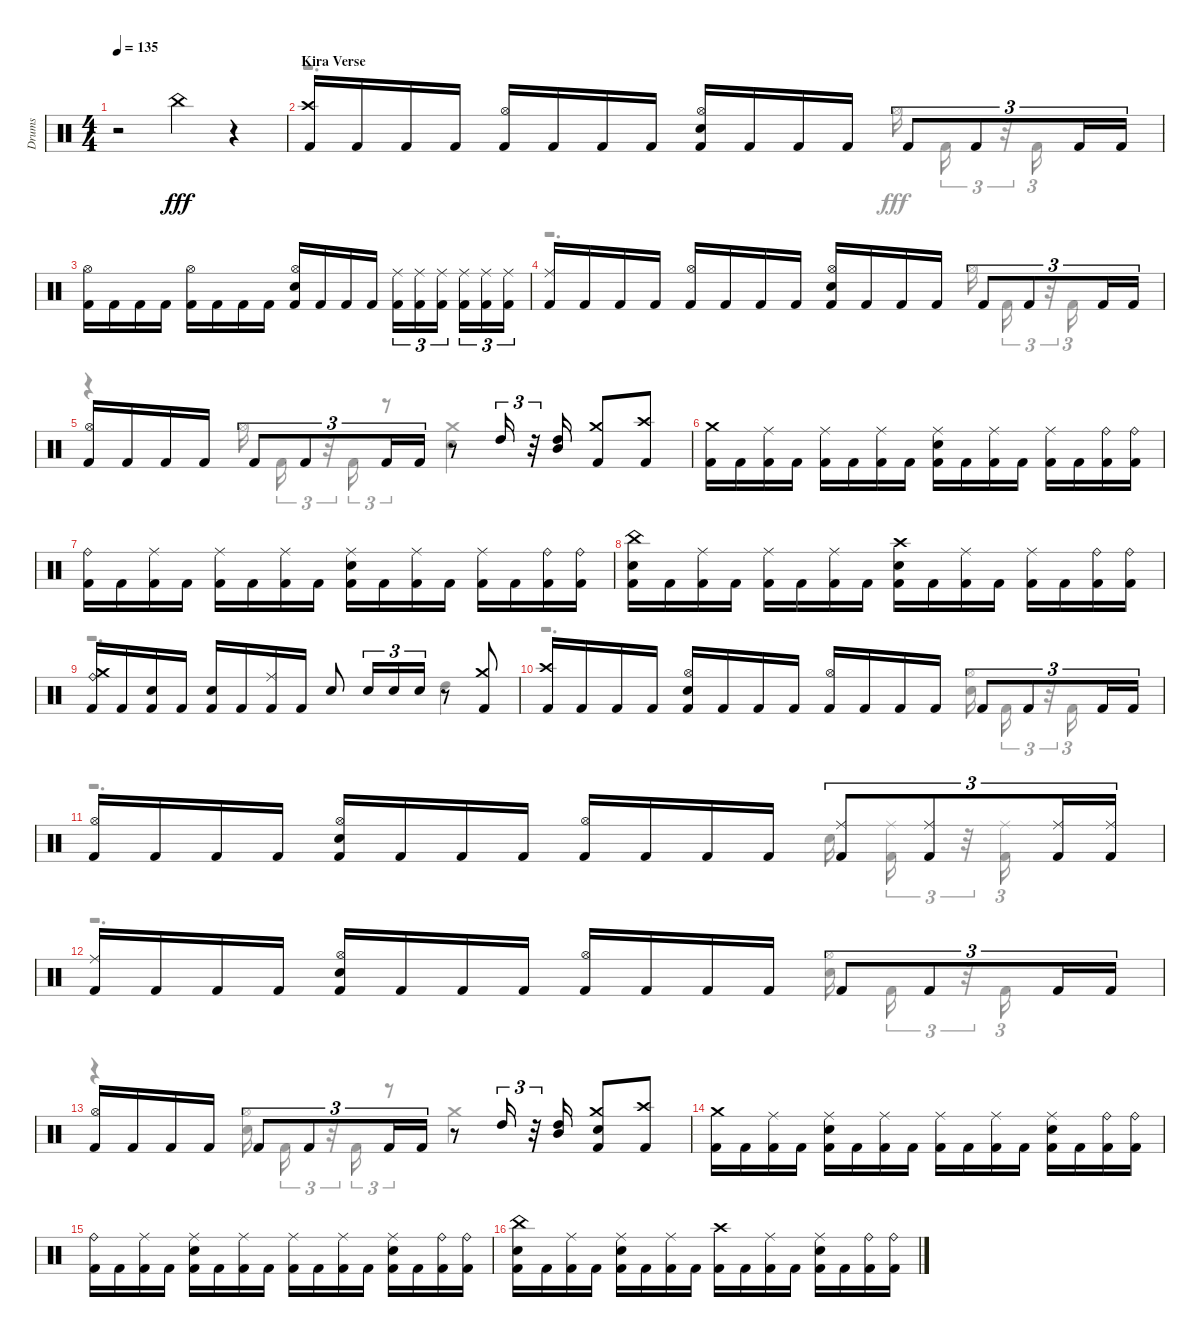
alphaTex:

\track ("Drums" "Drums") {instrument percussion}
\staff {score}
\articulation defaults
\voice
\ts (4 4)
\tempo 135
\clef neutral
\ks aminor
r.2{dy fff} "China (hit)".4 r.4 |
\section ("" "Kira Verse")
("Crash high (hit)" "Kick (hit) 2").16 "Kick (hit) 2".16 "Kick (hit) 2".16 "Kick (hit) 2".16 ("Hi-Hat (open)" "Kick (hit) 2").16 "Kick (hit) 2".16 "Kick (hit) 2".16 "Kick (hit) 2".16 ("Hi-Hat (open)" "Kick (hit) 2" "Snare (hit) 2").16 "Kick (hit) 2".16 "Kick (hit) 2".16 "Kick (hit) 2".16 "Kick (hit) 2".8{tu (3 2)} "Kick (hit) 2".8{tu (3 2)} "Kick (hit) 2".16{tu (3 2)} "Kick (hit) 2".16{tu (3 2)} |
("Kick (hit) 2" "Hi-Hat (open)").16 "Kick (hit) 2".16 "Kick (hit) 2".16 "Kick (hit) 2".16 ("Hi-Hat (open)" "Kick (hit) 2").16 "Kick (hit) 2".16 "Kick (hit) 2".16 "Kick (hit) 2".16 ("Hi-Hat (open)" "Kick (hit) 2" "Snare (hit) 2").16 "Kick (hit) 2".16 "Kick (hit) 2".16 "Kick (hit) 2".16 ("Kick (hit) 2" "Ride (middle)").16{tu (3 2)} ("Ride (middle)" "Kick (hit) 2").16{tu (3 2)} ("Kick (hit) 2" "Ride (middle)").16{tu (3 2)} ("Ride (middle)" "Kick (hit) 2").16{tu (3 2)} ("Ride (middle)" "Kick (hit) 2").16{tu (3 2)} ("Kick (hit) 2" "Ride (middle)").16{tu (3 2)} |
("Kick (hit) 2" "Ride (middle)").16 "Kick (hit) 2".16 "Kick (hit) 2".16 "Kick (hit) 2".16 ("Kick (hit) 2" "Hi-Hat (open)").16 "Kick (hit) 2".16 "Kick (hit) 2".16 "Kick (hit) 2".16 ("Snare (hit) 2" "Kick (hit) 2" "Hi-Hat (open)").16 "Kick (hit) 2".16 "Kick (hit) 2".16 "Kick (hit) 2".16 "Kick (hit) 2".8{tu (3 2)} "Kick (hit) 2".8{tu (3 2)} "Kick (hit) 2".16{tu (3 2)} "Kick (hit) 2".16{tu (3 2)} |
("Kick (hit) 2" "Hi-Hat (open)").16 "Kick (hit) 2".16 "Kick (hit) 2".16 "Kick (hit) 2".16 "Kick (hit) 2".8{tu (3 2)} "Kick (hit) 2".8{tu (3 2)} "Kick (hit) 2".16{tu (3 2)} "Kick (hit) 2".16{tu (3 2)} r.8 "High Tom (hit)".16{tu (3 2)} r.32{tu (3 2)} ("Mid Tom (hit)" "High Tom (hit)").16 ("Kick (hit) 2" "Crash medium (hit)").8 ("Kick (hit) 2" "Crash high (hit)").8 |
("Kick (hit) 2" "Crash medium (hit)").16 "Kick (hit) 2".16 ("Kick (hit) 2" "Ride (middle)").16 "Kick (hit) 2".16 ("Ride (middle)" "Kick (hit) 2").16 "Kick (hit) 2".16 ("Ride (middle)" "Kick (hit) 2").16 "Kick (hit) 2".16 ("Ride (middle)" "Kick (hit) 2" "Snare (hit) 2").16 "Kick (hit) 2".16 ("Kick (hit) 2" "Ride (middle)").16 "Kick (hit) 2".16 ("Ride (middle)" "Kick (hit) 2").16 "Kick (hit) 2".16 ("Ride (bell)" "Kick (hit) 2").16 ("Kick (hit) 2" "Ride (bell)").16 |
("Kick (hit) 2" "Ride (bell)").16 "Kick (hit) 2".16 ("Kick (hit) 2" "Ride (middle)").16 "Kick (hit) 2".16 ("Ride (middle)" "Kick (hit) 2").16 "Kick (hit) 2".16 ("Ride (middle)" "Kick (hit) 2").16 "Kick (hit) 2".16 ("Ride (middle)" "Kick (hit) 2" "Snare (hit) 2").16 "Kick (hit) 2".16 ("Ride (middle)" "Kick (hit) 2").16 "Kick (hit) 2".16 ("Kick (hit) 2" "Ride (middle)").16 "Kick (hit) 2".16 ("Kick (hit) 2" "Ride (bell)").16 ("Kick (hit) 2" "Ride (bell)").16 |
("Kick (hit) 2" "Snare (hit) 2" "China (hit)").16 "Kick (hit) 2".16 ("Kick (hit) 2" "Ride (middle)").16 "Kick (hit) 2".16 ("Kick (hit) 2" "Ride (middle)").16 "Kick (hit) 2".16 ("Ride (middle)" "Kick (hit) 2").16 "Kick (hit) 2".16 ("Crash high (hit)" "Snare (hit) 2" "Kick (hit) 2").16 "Kick (hit) 2".16 ("Kick (hit) 2" "Ride (middle)").16 "Kick (hit) 2".16 ("Ride (middle)" "Kick (hit) 2").16 "Kick (hit) 2".16 ("Kick (hit) 2" "Ride (bell)").16 ("Ride (bell)" "Kick (hit) 2").16 |
("Ride (bell)" "Crash medium (hit)" "Kick (hit) 2").16 "Kick (hit) 2".16 ("Snare (hit) 2" "Kick (hit) 2").16 "Kick (hit) 2".16 ("Snare (hit) 2" "Kick (hit) 2").16 "Kick (hit) 2".16 ("Kick (hit) 2" "Ride (middle)").16 "Kick (hit) 2".16 "Snare (hit) 2".8 "Snare (hit) 2".16{tu (3 2)} "Snare (hit) 2".16{tu (3 2)} "Snare (hit) 2".16{tu (3 2)} r.8 ("Kick (hit) 2" "Crash medium (hit)").8 |
("Crash high (hit)" "Kick (hit) 2").16 "Kick (hit) 2".16 "Kick (hit) 2".16 "Kick (hit) 2".16 ("Kick (hit) 2" "Hi-Hat (open)" "Snare (hit) 2").16 "Kick (hit) 2".16 "Kick (hit) 2".16 "Kick (hit) 2".16 ("Hi-Hat (open)" "Kick (hit) 2").16 "Kick (hit) 2".16 "Kick (hit) 2".16 "Kick (hit) 2".16 "Kick (hit) 2".8{tu (3 2)} "Kick (hit) 2".8{tu (3 2)} "Kick (hit) 2".16{tu (3 2)} "Kick (hit) 2".16{tu (3 2)} |
("Hi-Hat (open)" "Kick (hit) 2").16 "Kick (hit) 2".16 "Kick (hit) 2".16 "Kick (hit) 2".16 ("Snare (hit) 2" "Hi-Hat (open)" "Kick (hit) 2").16 "Kick (hit) 2".16 "Kick (hit) 2".16 "Kick (hit) 2".16 ("Hi-Hat (open)" "Kick (hit) 2").16 "Kick (hit) 2".16 "Kick (hit) 2".16 "Kick (hit) 2".16 ("Kick (hit) 2" "Ride (middle)").8{tu (3 2)} ("Kick (hit) 2" "Ride (middle)").8{tu (3 2)} ("Ride (middle)" "Kick (hit) 2").16{tu (3 2)} ("Ride (middle)" "Kick (hit) 2").16{tu (3 2)} |
("Ride (middle)" "Kick (hit) 2").16 "Kick (hit) 2".16 "Kick (hit) 2".16 "Kick (hit) 2".16 ("Kick (hit) 2" "Hi-Hat (open)" "Snare (hit) 2").16 "Kick (hit) 2".16 "Kick (hit) 2".16 "Kick (hit) 2".16 ("Hi-Hat (open)" "Kick (hit) 2").16 "Kick (hit) 2".16 "Kick (hit) 2".16 "Kick (hit) 2".16 "Kick (hit) 2".8{tu (3 2)} "Kick (hit) 2".8{tu (3 2)} "Kick (hit) 2".16{tu (3 2)} "Kick (hit) 2".16{tu (3 2)} |
("Kick (hit) 2" "Hi-Hat (open)").16 "Kick (hit) 2".16 "Kick (hit) 2".16 "Kick (hit) 2".16 "Kick (hit) 2".8{tu (3 2)} "Kick (hit) 2".8{tu (3 2)} "Kick (hit) 2".16{tu (3 2)} "Kick (hit) 2".16{tu (3 2)} r.8 "High Tom (hit)".16{tu (3 2)} r.32{tu (3 2)} ("Mid Tom (hit)" "High Tom (hit)").16 ("Kick (hit) 2" "Crash medium (hit)" "Snare (hit) 2").8 ("Kick (hit) 2" "Crash high (hit)").8 |
("Kick (hit) 2" "Crash medium (hit)").16 "Kick (hit) 2".16 ("Ride (middle)" "Kick (hit) 2").16 "Kick (hit) 2".16 ("Ride (middle)" "Snare (hit) 2" "Kick (hit) 2").16 "Kick (hit) 2".16 ("Kick (hit) 2" "Ride (middle)").16 "Kick (hit) 2".16 ("Ride (middle)" "Kick (hit) 2").16 "Kick (hit) 2".16 ("Ride (middle)" "Kick (hit) 2").16 "Kick (hit) 2".16 ("Ride (middle)" "Kick (hit) 2" "Snare (hit) 2").16 "Kick (hit) 2".16 ("Kick (hit) 2" "Ride (bell)").16 ("Kick (hit) 2" "Ride (bell)").16 |
("Kick (hit) 2" "Ride (bell)").16 "Kick (hit) 2".16 ("Kick (hit) 2" "Ride (middle)").16 "Kick (hit) 2".16 ("Ride (middle)" "Snare (hit) 2" "Kick (hit) 2").16 "Kick (hit) 2".16 ("Ride (middle)" "Kick (hit) 2").16 "Kick (hit) 2".16 ("Kick (hit) 2" "Ride (middle)").16 "Kick (hit) 2".16 ("Ride (middle)" "Kick (hit) 2").16 "Kick (hit) 2".16 ("Snare (hit) 2" "Ride (middle)" "Kick (hit) 2").16 "Kick (hit) 2".16 ("Kick (hit) 2" "Ride (bell)").16 ("Kick (hit) 2" "Ride (bell)").16 |
("Kick (hit) 2" "Snare (hit) 2" "China (hit)").16 "Kick (hit) 2".16 ("Kick (hit) 2" "Ride (middle)").16 "Kick (hit) 2".16 ("Ride (middle)" "Snare (hit) 2" "Kick (hit) 2").16 "Kick (hit) 2".16 ("Kick (hit) 2" "Ride (middle)").16 "Kick (hit) 2".16 ("Crash high (hit)" "Kick (hit) 2").16 "Kick (hit) 2".16 ("Kick (hit) 2" "Ride (middle)").16 "Kick (hit) 2".16 ("Ride (middle)" "Snare (hit) 2" "Kick (hit) 2").16 "Kick (hit) 2".16 ("Ride (bell)" "Kick (hit) 2").16 ("Kick (hit) 2" "Ride (bell)").16
\voice
\clef neutral
\ottava regular
\simile none
\ks aminor
|
r.2{d} "Hi-Hat (open)".16 "Kick (hit) 2".16{tu (3 2)} r.32{tu (3 2)} "Kick (hit) 2".16{tu (3 2)} |
|
r.2{d} "Hi-Hat (open)".16 "Kick (hit) 2".16{tu (3 2)} r.32{tu (3 2)} "Kick (hit) 2".16{tu (3 2)} |
r.4 "Hi-Hat (open)".16 "Kick (hit) 2".16{tu (3 2)} r.32{tu (3 2)} "Kick (hit) 2".16{tu (3 2)} r.8{tu (3 2)} ("Crash medium (hit)" "Snare (hit) 2").4 |
|
|
|
r.2{d} "High Tom (hit)".4 |
r.2{d} ("Snare (hit) 2" "Hi-Hat (open)").16 "Kick (hit) 2".16{tu (3 2)} r.32{tu (3 2)} "Kick (hit) 2".16{tu (3 2)} |
r.2{d} "Snare (hit) 2".16 ("Kick (hit) 2" "Ride (middle)").16{tu (3 2)} r.32{tu (3 2)} ("Kick (hit) 2" "Ride (middle)").16{tu (3 2)} |
r.2{d} ("Snare (hit) 2" "Hi-Hat (open)").16 "Kick (hit) 2".16{tu (3 2)} r.32{tu (3 2)} "Kick (hit) 2".16{tu (3 2)} |
r.4 ("Hi-Hat (open)" "Snare (hit) 2").16 "Kick (hit) 2".16{tu (3 2)} r.32{tu (3 2)} "Kick (hit) 2".16{tu (3 2)} r.8{tu (3 2)} "Crash medium (hit)".4 |
|
|
